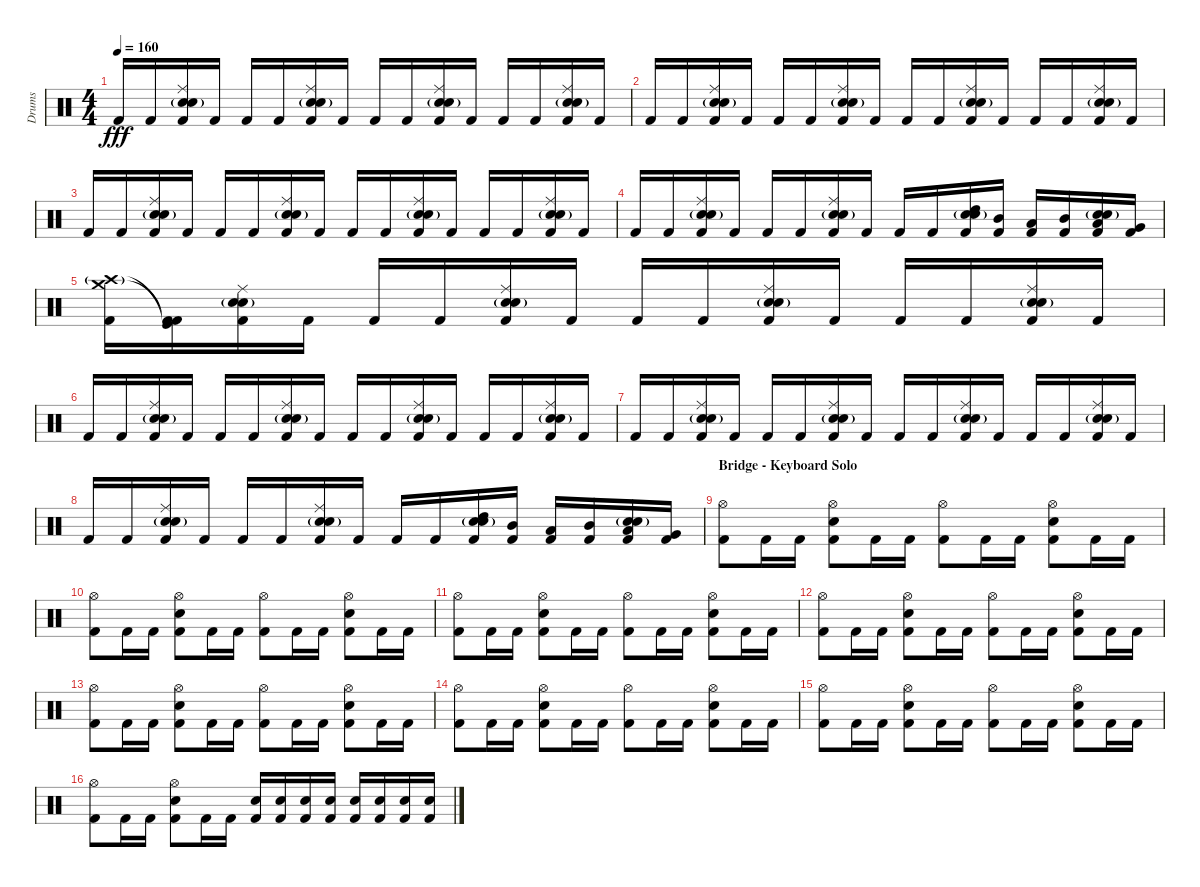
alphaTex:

\track ("Drums" "Drums") {instrument percussion}
\staff {score}
\articulation defaults
\ts (4 4)
\tempo 160
\clef neutral
\ks c "Kick (hit) 2".16{dy fff} "Kick (hit) 2".16
("Ride (middle)" "Snare (hit) 2"{g} "Electric Snare (hit)" "Kick (hit) 2").16 "Kick (hit) 2".16 "Kick (hit) 2".16 "Kick (hit) 2".16 ("Ride (middle)" "Snare (hit) 2"{g} "Electric Snare (hit)" "Kick (hit) 2").16 "Kick (hit) 2".16 "Kick (hit) 2".16 "Kick (hit) 2".16 ("Ride (middle)" "Snare (hit) 2"{g} "Electric Snare (hit)" "Kick (hit) 2").16 "Kick (hit) 2".16 "Kick (hit) 2".16 "Kick (hit) 2".16 ("Ride (middle)" "Snare (hit) 2"{g} "Electric Snare (hit)" "Kick (hit) 2").16 "Kick (hit) 2".16 |
"Kick (hit) 2".16 "Kick (hit) 2".16 ("Ride (middle)" "Snare (hit) 2"{g} "Electric Snare (hit)" "Kick (hit) 2").16 "Kick (hit) 2".16 "Kick (hit) 2".16 "Kick (hit) 2".16 ("Ride (middle)" "Snare (hit) 2"{g} "Electric Snare (hit)" "Kick (hit) 2").16 "Kick (hit) 2".16 "Kick (hit) 2".16 "Kick (hit) 2".16 ("Ride (middle)" "Snare (hit) 2"{g} "Electric Snare (hit)" "Kick (hit) 2").16 "Kick (hit) 2".16 "Kick (hit) 2".16 "Kick (hit) 2".16 ("Ride (middle)" "Snare (hit) 2"{g} "Electric Snare (hit)" "Kick (hit) 2").16 "Kick (hit) 2".16 |
"Kick (hit) 2".16 "Kick (hit) 2".16 ("Ride (middle)" "Snare (hit) 2"{g} "Electric Snare (hit)" "Kick (hit) 2").16 "Kick (hit) 2".16 "Kick (hit) 2".16 "Kick (hit) 2".16 ("Ride (middle)" "Snare (hit) 2"{g} "Electric Snare (hit)" "Kick (hit) 2").16 "Kick (hit) 2".16 "Kick (hit) 2".16 "Kick (hit) 2".16 ("Ride (middle)" "Snare (hit) 2"{g} "Electric Snare (hit)" "Kick (hit) 2").16 "Kick (hit) 2".16 "Kick (hit) 2".16 "Kick (hit) 2".16 ("Ride (middle)" "Snare (hit) 2"{g} "Electric Snare (hit)" "Kick (hit) 2").16 "Kick (hit) 2".16 |
"Kick (hit) 2".16 "Kick (hit) 2".16 ("Ride (middle)" "Snare (hit) 2"{g} "Electric Snare (hit)" "Kick (hit) 2").16 "Kick (hit) 2".16 "Kick (hit) 2".16 "Kick (hit) 2".16 ("Ride (middle)" "Snare (hit) 2"{g} "Electric Snare (hit)" "Kick (hit) 2").16 "Kick (hit) 2".16 "Kick (hit) 2".16 "Kick (hit) 2".16 ("Electric Snare (hit)"{g} "Snare (hit) 2"{g} "High Tom (hit)" "Kick (hit) 2").16 ("Mid Tom (hit)" "Kick (hit) 2").16 ("Low Tom (hit)" "Kick (hit) 2").16 ("Mid Tom (hit)" "Kick (hit) 2").16 ("Electric Snare (hit)"{g} "Snare (hit) 2"{g} "Low Tom (hit)" "Kick (hit) 2").16 ("Very Low Tom (hit)" "Kick (hit) 2").16 |
("Crash medium (hit)" "Crash high (hit)"{g} "Kick (hit) 2").16 ("Kick (hit) 2"{t} "Kick (hit)"{t} "Kick (hit) 2").16 ("Ride (middle)" "Snare (hit) 2"{g} "Electric Snare (hit)" "Kick (hit) 2").16 "Kick (hit) 2".16 "Kick (hit) 2".16 "Kick (hit) 2".16 ("Ride (middle)" "Snare (hit) 2"{g} "Electric Snare (hit)" "Kick (hit) 2").16 "Kick (hit) 2".16 "Kick (hit) 2".16 "Kick (hit) 2".16 ("Ride (middle)" "Snare (hit) 2"{g} "Electric Snare (hit)" "Kick (hit) 2").16 "Kick (hit) 2".16 "Kick (hit) 2".16 "Kick (hit) 2".16 ("Ride (middle)" "Snare (hit) 2"{g} "Electric Snare (hit)" "Kick (hit) 2").16 "Kick (hit) 2".16 |
"Kick (hit) 2".16 "Kick (hit) 2".16 ("Ride (middle)" "Snare (hit) 2"{g} "Electric Snare (hit)" "Kick (hit) 2").16 "Kick (hit) 2".16 "Kick (hit) 2".16 "Kick (hit) 2".16 ("Ride (middle)" "Snare (hit) 2"{g} "Electric Snare (hit)" "Kick (hit) 2").16 "Kick (hit) 2".16 "Kick (hit) 2".16 "Kick (hit) 2".16 ("Ride (middle)" "Snare (hit) 2"{g} "Electric Snare (hit)" "Kick (hit) 2").16 "Kick (hit) 2".16 "Kick (hit) 2".16 "Kick (hit) 2".16 ("Ride (middle)" "Snare (hit) 2"{g} "Electric Snare (hit)" "Kick (hit) 2").16 "Kick (hit) 2".16 |
"Kick (hit) 2".16 "Kick (hit) 2".16 ("Ride (middle)" "Snare (hit) 2"{g} "Electric Snare (hit)" "Kick (hit) 2").16 "Kick (hit) 2".16 "Kick (hit) 2".16 "Kick (hit) 2".16 ("Ride (middle)" "Snare (hit) 2"{g} "Electric Snare (hit)" "Kick (hit) 2").16 "Kick (hit) 2".16 "Kick (hit) 2".16 "Kick (hit) 2".16 ("Ride (middle)" "Snare (hit) 2"{g} "Electric Snare (hit)" "Kick (hit) 2").16 "Kick (hit) 2".16 "Kick (hit) 2".16 "Kick (hit) 2".16 ("Ride (middle)" "Snare (hit) 2"{g} "Electric Snare (hit)" "Kick (hit) 2").16 "Kick (hit) 2".16 |
"Kick (hit) 2".16 "Kick (hit) 2".16 ("Ride (middle)" "Snare (hit) 2"{g} "Electric Snare (hit)" "Kick (hit) 2").16 "Kick (hit) 2".16 "Kick (hit) 2".16 "Kick (hit) 2".16 ("Ride (middle)" "Snare (hit) 2"{g} "Electric Snare (hit)" "Kick (hit) 2").16 "Kick (hit) 2".16 "Kick (hit) 2".16 "Kick (hit) 2".16 ("Electric Snare (hit)"{g} "Snare (hit) 2"{g} "High Tom (hit)" "Kick (hit) 2").16 ("Mid Tom (hit)" "Kick (hit) 2").16 ("Low Tom (hit)" "Kick (hit) 2").16 ("Mid Tom (hit)" "Kick (hit) 2").16 ("Electric Snare (hit)"{g} "Snare (hit) 2"{g} "Low Tom (hit)" "Kick (hit) 2").16 ("Very Low Tom (hit)" "Kick (hit) 2").16 |
\section ("" "Bridge - Keyboard Solo")
("Hi-Hat (open)" "Kick (hit) 2").8 "Kick (hit) 2".16 "Kick (hit) 2".16 ("Hi-Hat (open)" "Snare (hit) 2" "Kick (hit) 2").8 "Kick (hit) 2".16 "Kick (hit) 2".16 ("Hi-Hat (open)" "Kick (hit) 2").8 "Kick (hit) 2".16 "Kick (hit) 2".16 ("Hi-Hat (open)" "Snare (hit) 2" "Kick (hit) 2").8 "Kick (hit) 2".16 "Kick (hit) 2".16 |
("Hi-Hat (open)" "Kick (hit) 2").8 "Kick (hit) 2".16 "Kick (hit) 2".16 ("Hi-Hat (open)" "Snare (hit) 2" "Kick (hit) 2").8 "Kick (hit) 2".16 "Kick (hit) 2".16 ("Hi-Hat (open)" "Kick (hit) 2").8 "Kick (hit) 2".16 "Kick (hit) 2".16 ("Hi-Hat (open)" "Snare (hit) 2" "Kick (hit) 2").8 "Kick (hit) 2".16 "Kick (hit) 2".16 |
("Hi-Hat (open)" "Kick (hit) 2").8 "Kick (hit) 2".16 "Kick (hit) 2".16 ("Hi-Hat (open)" "Snare (hit) 2" "Kick (hit) 2").8 "Kick (hit) 2".16 "Kick (hit) 2".16 ("Hi-Hat (open)" "Kick (hit) 2").8 "Kick (hit) 2".16 "Kick (hit) 2".16 ("Hi-Hat (open)" "Snare (hit) 2" "Kick (hit) 2").8 "Kick (hit) 2".16 "Kick (hit) 2".16 |
("Hi-Hat (open)" "Kick (hit) 2").8 "Kick (hit) 2".16 "Kick (hit) 2".16 ("Hi-Hat (open)" "Snare (hit) 2" "Kick (hit) 2").8 "Kick (hit) 2".16 "Kick (hit) 2".16 ("Hi-Hat (open)" "Kick (hit) 2").8 "Kick (hit) 2".16 "Kick (hit) 2".16 ("Hi-Hat (open)" "Snare (hit) 2" "Kick (hit) 2").8 "Kick (hit) 2".16 "Kick (hit) 2".16 |
("Hi-Hat (open)" "Kick (hit) 2").8 "Kick (hit) 2".16 "Kick (hit) 2".16 ("Hi-Hat (open)" "Snare (hit) 2" "Kick (hit) 2").8 "Kick (hit) 2".16 "Kick (hit) 2".16 ("Hi-Hat (open)" "Kick (hit) 2").8 "Kick (hit) 2".16 "Kick (hit) 2".16 ("Hi-Hat (open)" "Snare (hit) 2" "Kick (hit) 2").8 "Kick (hit) 2".16 "Kick (hit) 2".16 |
("Hi-Hat (open)" "Kick (hit) 2").8 "Kick (hit) 2".16 "Kick (hit) 2".16 ("Hi-Hat (open)" "Snare (hit) 2" "Kick (hit) 2").8 "Kick (hit) 2".16 "Kick (hit) 2".16 ("Hi-Hat (open)" "Kick (hit) 2").8 "Kick (hit) 2".16 "Kick (hit) 2".16 ("Hi-Hat (open)" "Snare (hit) 2" "Kick (hit) 2").8 "Kick (hit) 2".16 "Kick (hit) 2".16 |
("Hi-Hat (open)" "Kick (hit) 2").8 "Kick (hit) 2".16 "Kick (hit) 2".16 ("Hi-Hat (open)" "Snare (hit) 2" "Kick (hit) 2").8 "Kick (hit) 2".16 "Kick (hit) 2".16 ("Hi-Hat (open)" "Kick (hit) 2").8 "Kick (hit) 2".16 "Kick (hit) 2".16 ("Hi-Hat (open)" "Snare (hit) 2" "Kick (hit) 2").8 "Kick (hit) 2".16 "Kick (hit) 2".16 |
("Hi-Hat (open)" "Kick (hit) 2").8 "Kick (hit) 2".16 "Kick (hit) 2".16 ("Hi-Hat (open)" "Snare (hit) 2" "Kick (hit) 2").8 "Kick (hit) 2".16 "Kick (hit) 2".16 ("Snare (hit) 2" "Kick (hit) 2").16 ("Snare (hit) 2" "Kick (hit) 2").16 ("Snare (hit) 2" "Kick (hit) 2").16 ("Snare (hit) 2" "Kick (hit) 2").16 ("Snare (hit) 2" "Kick (hit) 2").16 ("Snare (hit) 2" "Kick (hit) 2").16 ("Snare (hit) 2" "Kick (hit) 2").16 ("Snare (hit) 2" "Kick (hit) 2").16
